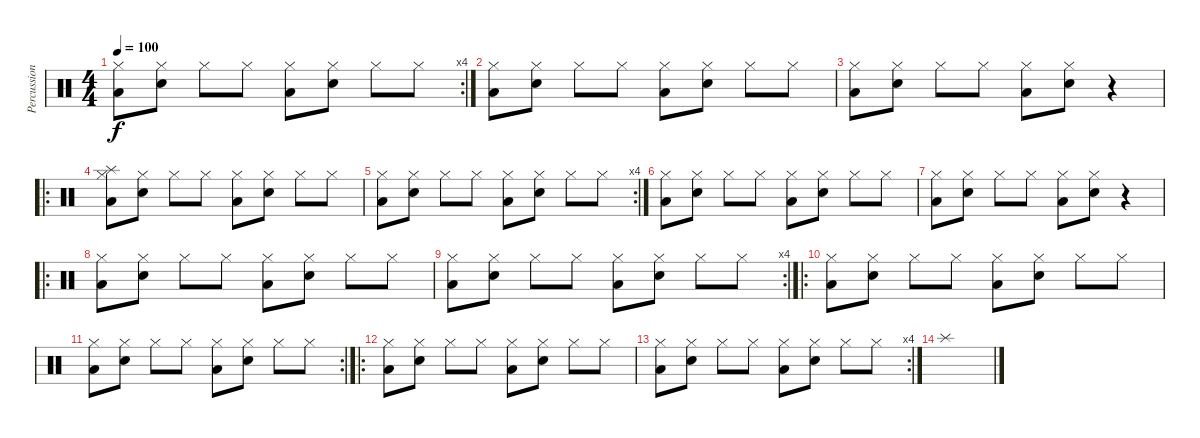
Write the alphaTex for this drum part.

\track ("Percussions" "Percussion") {instrument percussion}
\staff {score}
\articulation defaults
\rc 4
\ts (4 4)
\tempo 100
\clef neutral
\ks c
("Hi-Hat (closed)" "Low Tom (hit)").8{dy f} ("Hi-Hat (closed)" "Snare (hit) 2").8 "Hi-Hat (closed)".8 "Hi-Hat (closed)".8 ("Hi-Hat (closed)" "Low Tom (hit)").8 ("Hi-Hat (closed)" "Snare (hit) 2").8 "Hi-Hat (closed)".8 "Hi-Hat (closed)".8 |
("Hi-Hat (closed)" "Low Tom (hit)").8 ("Hi-Hat (closed)" "Snare (hit) 2").8 "Hi-Hat (closed)".8 "Hi-Hat (closed)".8 ("Hi-Hat (closed)" "Low Tom (hit)").8 ("Hi-Hat (closed)" "Snare (hit) 2").8 "Hi-Hat (closed)".8 "Hi-Hat (closed)".8 |
("Hi-Hat (closed)" "Low Tom (hit)").8 ("Hi-Hat (closed)" "Snare (hit) 2").8 "Hi-Hat (closed)".8 "Hi-Hat (closed)".8 ("Hi-Hat (closed)" "Low Tom (hit)").8 ("Hi-Hat (closed)" "Snare (hit) 2").8 r.4 |
\ro
("Hi-Hat (closed)" "Low Tom (hit)" "Splash (hit)").8 ("Hi-Hat (closed)" "Snare (hit) 2").8 "Hi-Hat (closed)".8 "Hi-Hat (closed)".8 ("Hi-Hat (closed)" "Low Tom (hit)").8 ("Hi-Hat (closed)" "Snare (hit) 2").8 "Hi-Hat (closed)".8 "Hi-Hat (closed)".8 |
\rc 4
("Hi-Hat (closed)" "Low Tom (hit)").8 ("Hi-Hat (closed)" "Snare (hit) 2").8 "Hi-Hat (closed)".8 "Hi-Hat (closed)".8 ("Hi-Hat (closed)" "Low Tom (hit)").8 ("Hi-Hat (closed)" "Snare (hit) 2").8 "Hi-Hat (closed)".8 "Hi-Hat (closed)".8 |
("Hi-Hat (closed)" "Low Tom (hit)").8 ("Hi-Hat (closed)" "Snare (hit) 2").8 "Hi-Hat (closed)".8 "Hi-Hat (closed)".8 ("Hi-Hat (closed)" "Low Tom (hit)").8 ("Hi-Hat (closed)" "Snare (hit) 2").8 "Hi-Hat (closed)".8 "Hi-Hat (closed)".8 |
("Hi-Hat (closed)" "Low Tom (hit)").8 ("Hi-Hat (closed)" "Snare (hit) 2").8 "Hi-Hat (closed)".8 "Hi-Hat (closed)".8 ("Hi-Hat (closed)" "Low Tom (hit)").8 ("Hi-Hat (closed)" "Snare (hit) 2").8 r.4 |
\ro
("Hi-Hat (closed)" "Low Tom (hit)").8 ("Hi-Hat (closed)" "Snare (hit) 2").8 "Hi-Hat (closed)".8 "Hi-Hat (closed)".8 ("Hi-Hat (closed)" "Low Tom (hit)").8 ("Hi-Hat (closed)" "Snare (hit) 2").8 "Hi-Hat (closed)".8 "Hi-Hat (closed)".8 |
\rc 4
("Hi-Hat (closed)" "Low Tom (hit)").8 ("Hi-Hat (closed)" "Snare (hit) 2").8 "Hi-Hat (closed)".8 "Hi-Hat (closed)".8 ("Hi-Hat (closed)" "Low Tom (hit)").8 ("Hi-Hat (closed)" "Snare (hit) 2").8 "Hi-Hat (closed)".8 "Hi-Hat (closed)".8 |
\ro
("Hi-Hat (closed)" "Low Tom (hit)").8 ("Hi-Hat (closed)" "Snare (hit) 2").8 "Hi-Hat (closed)".8 "Hi-Hat (closed)".8 ("Hi-Hat (closed)" "Low Tom (hit)").8 ("Hi-Hat (closed)" "Snare (hit) 2").8 "Hi-Hat (closed)".8 "Hi-Hat (closed)".8 |
\rc 2
("Hi-Hat (closed)" "Low Tom (hit)").8 ("Hi-Hat (closed)" "Snare (hit) 2").8 "Hi-Hat (closed)".8 "Hi-Hat (closed)".8 ("Hi-Hat (closed)" "Low Tom (hit)").8 ("Hi-Hat (closed)" "Snare (hit) 2").8 "Hi-Hat (closed)".8 "Hi-Hat (closed)".8 |
\ro
("Hi-Hat (closed)" "Low Tom (hit)").8 ("Hi-Hat (closed)" "Snare (hit) 2").8 "Hi-Hat (closed)".8 "Hi-Hat (closed)".8 ("Hi-Hat (closed)" "Low Tom (hit)").8 ("Hi-Hat (closed)" "Snare (hit) 2").8 "Hi-Hat (closed)".8 "Hi-Hat (closed)".8 |
\rc 4
("Hi-Hat (closed)" "Low Tom (hit)").8 ("Hi-Hat (closed)" "Snare (hit) 2").8 "Hi-Hat (closed)".8 "Hi-Hat (closed)".8 ("Hi-Hat (closed)" "Low Tom (hit)").8 ("Hi-Hat (closed)" "Snare (hit) 2").8 "Hi-Hat (closed)".8 "Hi-Hat (closed)".8 |
"Splash (hit)".1
